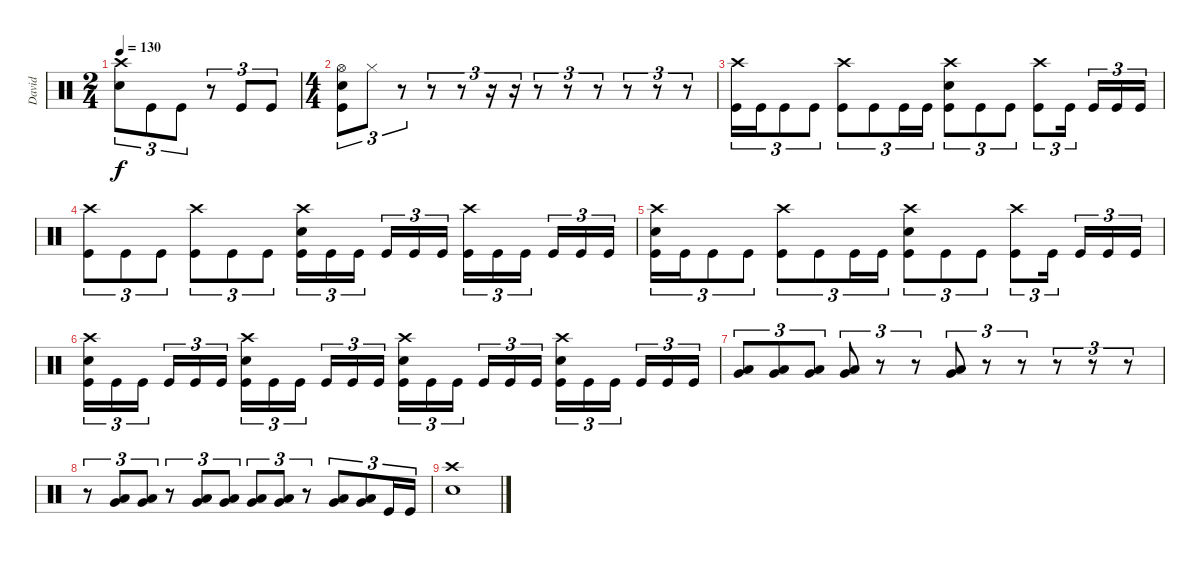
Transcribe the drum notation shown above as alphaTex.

\track ("David" "David") {instrument percussion}
\staff {score}
\articulation defaults
\ts (2 4)
\tempo 130
\clef neutral
\ks c
("Crash high (hit)" "Electric Snare (hit)").8{tu (3 2) dy f} "Kick (hit)".8{tu (3 2)} "Kick (hit)".8{tu (3 2)} r.8{tu (3 2)} "Kick (hit)".8{tu (3 2)} "Kick (hit)".8{tu (3 2)} |
\ts (4 4)
("Hi-Hat (open)" "Electric Snare (hit)" "Kick (hit)").8{tu (3 2)} "Hi-Hat (closed)".8{tu (3 2)} r.8{tu (3 2)} r.8{tu (3 2)} r.8{tu (3 2)} r.16{tu (3 2)} r.16{tu (3 2)} r.8{tu (3 2)} r.8{tu (3 2)} r.8{tu (3 2)} r.8{tu (3 2)} r.8{tu (3 2)} r.8{tu (3 2)} |
("Crash high (hit)" "Kick (hit)").16{tu (3 2)} "Kick (hit)".16{tu (3 2)} "Kick (hit)".8{tu (3 2)} "Kick (hit)".8{tu (3 2)} ("Crash high (hit)" "Kick (hit)").8{tu (3 2)} "Kick (hit)".8{tu (3 2)} "Kick (hit)".16{tu (3 2)} "Kick (hit)".16{tu (3 2)} ("Crash high (hit)" "Electric Snare (hit)" "Kick (hit)").8{tu (3 2)} "Kick (hit)".8{tu (3 2)} "Kick (hit)".8{tu (3 2)} ("Crash high (hit)" "Kick (hit)").8{tu (3 2)} "Kick (hit)".16{tu (3 2) beam splitsecondary} "Kick (hit)".16{tu (3 2)} "Kick (hit)".16{tu (3 2)} "Kick (hit)".16{tu (3 2)} |
("Crash high (hit)" "Kick (hit)").8{tu (3 2)} "Kick (hit)".8{tu (3 2)} "Kick (hit)".8{tu (3 2)} ("Crash high (hit)" "Kick (hit)").8{tu (3 2)} "Kick (hit)".8{tu (3 2)} "Kick (hit)".8{tu (3 2)} ("Crash high (hit)" "Electric Snare (hit)" "Kick (hit)").16{tu (3 2)} "Kick (hit)".16{tu (3 2)} "Kick (hit)".16{tu (3 2) beam splitsecondary} "Kick (hit)".16{tu (3 2)} "Kick (hit)".16{tu (3 2)} "Kick (hit)".16{tu (3 2)} ("Crash high (hit)" "Kick (hit)").16{tu (3 2)} "Kick (hit)".16{tu (3 2)} "Kick (hit)".16{tu (3 2) beam splitsecondary} "Kick (hit)".16{tu (3 2)} "Kick (hit)".16{tu (3 2)} "Kick (hit)".16{tu (3 2)} |
("Crash high (hit)" "Electric Snare (hit)" "Kick (hit)").16{tu (3 2)} "Kick (hit)".16{tu (3 2)} "Kick (hit)".8{tu (3 2)} "Kick (hit)".8{tu (3 2)} ("Crash high (hit)" "Kick (hit)").8{tu (3 2)} "Kick (hit)".8{tu (3 2)} "Kick (hit)".16{tu (3 2)} "Kick (hit)".16{tu (3 2)} ("Crash high (hit)" "Electric Snare (hit)" "Kick (hit)").8{tu (3 2)} "Kick (hit)".8{tu (3 2)} "Kick (hit)".8{tu (3 2)} ("Crash high (hit)" "Kick (hit)").8{tu (3 2)} "Kick (hit)".16{tu (3 2) beam splitsecondary} "Kick (hit)".16{tu (3 2)} "Kick (hit)".16{tu (3 2)} "Kick (hit)".16{tu (3 2)} |
("Crash high (hit)" "Electric Snare (hit)" "Kick (hit)").16{tu (3 2)} "Kick (hit)".16{tu (3 2)} "Kick (hit)".16{tu (3 2) beam splitsecondary} "Kick (hit)".16{tu (3 2)} "Kick (hit)".16{tu (3 2)} "Kick (hit)".16{tu (3 2)} ("Crash high (hit)" "Electric Snare (hit)" "Kick (hit)").16{tu (3 2)} "Kick (hit)".16{tu (3 2)} "Kick (hit)".16{tu (3 2) beam splitsecondary} "Kick (hit)".16{tu (3 2)} "Kick (hit)".16{tu (3 2)} "Kick (hit)".16{tu (3 2)} ("Crash high (hit)" "Electric Snare (hit)" "Kick (hit)").16{tu (3 2)} "Kick (hit)".16{tu (3 2)} "Kick (hit)".16{tu (3 2) beam splitsecondary} "Kick (hit)".16{tu (3 2)} "Kick (hit)".16{tu (3 2)} "Kick (hit)".16{tu (3 2)} ("Crash high (hit)" "Electric Snare (hit)" "Kick (hit)").16{tu (3 2)} "Kick (hit)".16{tu (3 2)} "Kick (hit)".16{tu (3 2) beam splitsecondary} "Kick (hit)".16{tu (3 2)} "Kick (hit)".16{tu (3 2)} "Kick (hit)".16{tu (3 2)} |
("Low Floor Tom (hit)" "Very Low Tom (hit)").8{tu (3 2)} ("Low Floor Tom (hit)" "Very Low Tom (hit)").8{tu (3 2)} ("Low Floor Tom (hit)" "Very Low Tom (hit)").8{tu (3 2)} ("Low Floor Tom (hit)" "Very Low Tom (hit)").8{tu (3 2)} r.8{tu (3 2)} r.8{tu (3 2)} ("Low Floor Tom (hit)" "Very Low Tom (hit)").8{tu (3 2)} r.8{tu (3 2)} r.8{tu (3 2)} r.8{tu (3 2)} r.8{tu (3 2)} r.8{tu (3 2)} |
r.8{tu (3 2)} ("Low Floor Tom (hit)" "Very Low Tom (hit)").8{tu (3 2)} ("Low Floor Tom (hit)" "Very Low Tom (hit)").8{tu (3 2)} r.8{tu (3 2)} ("Low Floor Tom (hit)" "Very Low Tom (hit)").8{tu (3 2)} ("Low Floor Tom (hit)" "Very Low Tom (hit)").8{tu (3 2)} ("Low Floor Tom (hit)" "Very Low Tom (hit)").8{tu (3 2)} ("Low Floor Tom (hit)" "Very Low Tom (hit)").8{tu (3 2)} r.8{tu (3 2)} ("Low Floor Tom (hit)" "Very Low Tom (hit)").8{tu (3 2)} ("Low Floor Tom (hit)" "Very Low Tom (hit)").8{tu (3 2)} "Kick (hit)".16{tu (3 2)} "Kick (hit)".16{tu (3 2)} |
("Crash high (hit)" "Electric Snare (hit)").1
